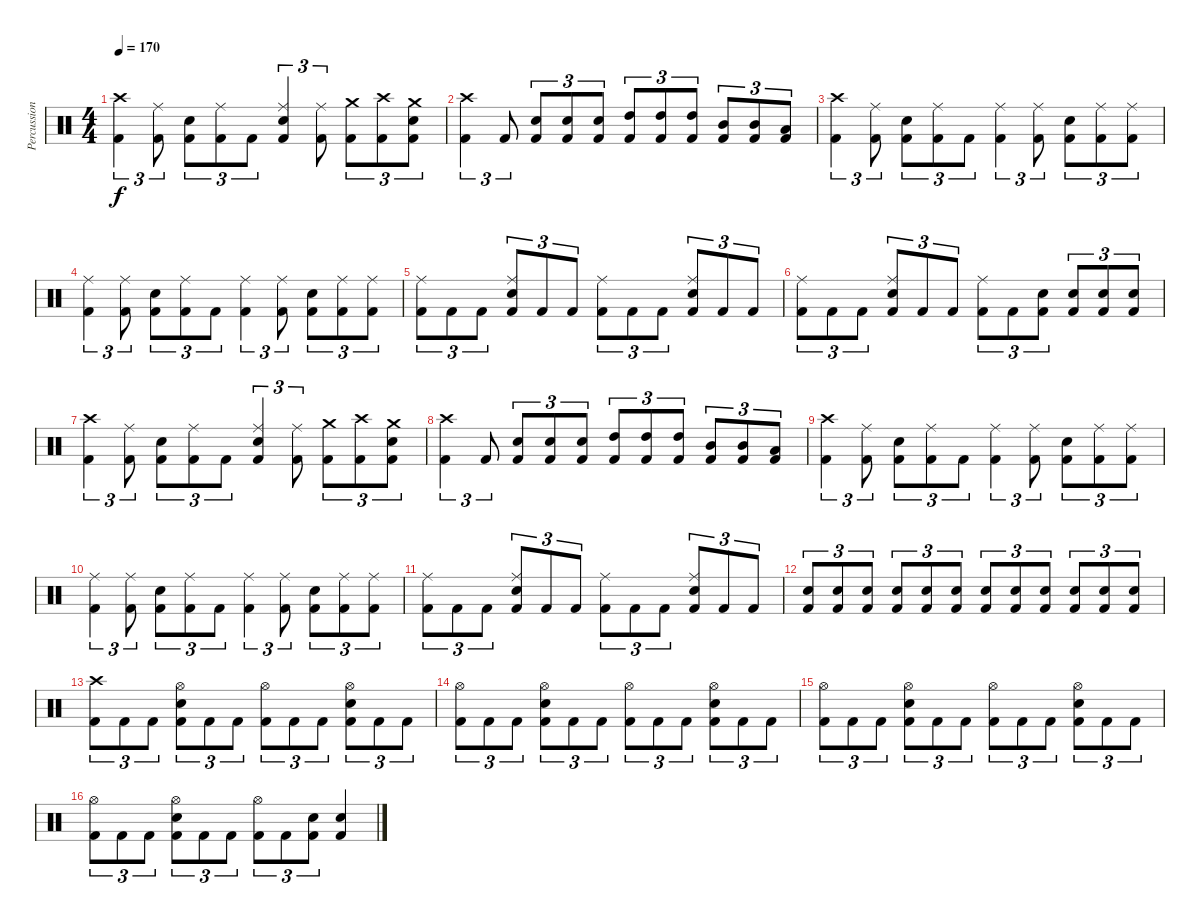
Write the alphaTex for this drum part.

\track ("Percussion" "Percussion") {instrument percussion}
\staff {score}
\articulation defaults
\ts (4 4)
\tempo 170
\clef neutral
\ks c
("Crash high (hit)" "Kick (hit) 2").4{tu (3 2) dy f} ("Ride (middle)" "Kick (hit) 2").8{tu (3 2)} ("Snare (hit) 2" "Kick (hit) 2").8{tu (3 2)} ("Ride (middle)" "Kick (hit) 2").8{tu (3 2)} "Kick (hit) 2".8{tu (3 2)} ("Ride (middle)" "Snare (hit) 2" "Kick (hit) 2").4{tu (3 2)} ("Ride (middle)" "Kick (hit) 2").8{tu (3 2)} ("Crash medium (hit)" "Kick (hit) 2").8{tu (3 2)} ("Crash high (hit)" "Kick (hit) 2").8{tu (3 2)} ("Crash medium (hit)" "Snare (hit) 2" "Kick (hit) 2").8{tu (3 2)} |
("Crash high (hit)" "Kick (hit) 2").4{tu (3 2)} "Kick (hit) 2".8{tu (3 2)} ("Snare (hit) 2" "Kick (hit) 2").8{tu (3 2)} ("Snare (hit) 2" "Kick (hit) 2").8{tu (3 2)} ("Snare (hit) 2" "Kick (hit) 2").8{tu (3 2)} ("High Tom (hit)" "Kick (hit) 2").8{tu (3 2)} ("High Tom (hit)" "Kick (hit) 2").8{tu (3 2)} ("High Tom (hit)" "Kick (hit) 2").8{tu (3 2)} ("Mid Tom (hit)" "Kick (hit) 2").8{tu (3 2)} ("Mid Tom (hit)" "Kick (hit) 2").8{tu (3 2)} ("Low Tom (hit)" "Kick (hit) 2").8{tu (3 2)} |
("Crash high (hit)" "Kick (hit) 2").4{tu (3 2)} ("Ride (middle)" "Kick (hit) 2").8{tu (3 2)} ("Snare (hit) 2" "Kick (hit) 2").8{tu (3 2)} ("Ride (middle)" "Kick (hit) 2").8{tu (3 2)} "Kick (hit) 2".8{tu (3 2)} ("Ride (middle)" "Kick (hit) 2").4{tu (3 2)} ("Ride (middle)" "Kick (hit) 2").8{tu (3 2)} ("Snare (hit) 2" "Kick (hit) 2").8{tu (3 2)} ("Ride (middle)" "Kick (hit) 2").8{tu (3 2)} ("Ride (middle)" "Kick (hit) 2").8{tu (3 2)} |
("Ride (middle)" "Kick (hit) 2").4{tu (3 2)} ("Ride (middle)" "Kick (hit) 2").8{tu (3 2)} ("Snare (hit) 2" "Kick (hit) 2").8{tu (3 2)} ("Ride (middle)" "Kick (hit) 2").8{tu (3 2)} "Kick (hit) 2".8{tu (3 2)} ("Ride (middle)" "Kick (hit) 2").4{tu (3 2)} ("Ride (middle)" "Kick (hit) 2").8{tu (3 2)} ("Snare (hit) 2" "Kick (hit) 2").8{tu (3 2)} ("Ride (middle)" "Kick (hit) 2").8{tu (3 2)} ("Ride (middle)" "Kick (hit) 2").8{tu (3 2)} |
("Ride (middle)" "Kick (hit) 2").8{tu (3 2)} "Kick (hit) 2".8{tu (3 2)} "Kick (hit) 2".8{tu (3 2)} ("Ride (middle)" "Snare (hit) 2" "Kick (hit) 2").8{tu (3 2)} "Kick (hit) 2".8{tu (3 2)} "Kick (hit) 2".8{tu (3 2)} ("Ride (middle)" "Kick (hit) 2").8{tu (3 2)} "Kick (hit) 2".8{tu (3 2)} "Kick (hit) 2".8{tu (3 2)} ("Ride (middle)" "Snare (hit) 2" "Kick (hit) 2").8{tu (3 2)} "Kick (hit) 2".8{tu (3 2)} "Kick (hit) 2".8{tu (3 2)} |
("Ride (middle)" "Kick (hit) 2").8{tu (3 2)} "Kick (hit) 2".8{tu (3 2)} "Kick (hit) 2".8{tu (3 2)} ("Ride (middle)" "Snare (hit) 2" "Kick (hit) 2").8{tu (3 2)} "Kick (hit) 2".8{tu (3 2)} "Kick (hit) 2".8{tu (3 2)} ("Ride (middle)" "Kick (hit) 2").8{tu (3 2)} "Kick (hit) 2".8{tu (3 2)} ("Snare (hit) 2" "Kick (hit) 2").8{tu (3 2)} ("Snare (hit) 2" "Kick (hit) 2").8{tu (3 2)} ("Snare (hit) 2" "Kick (hit) 2").8{tu (3 2)} ("Snare (hit) 2" "Kick (hit) 2").8{tu (3 2)} |
("Crash high (hit)" "Kick (hit) 2").4{tu (3 2)} ("Ride (middle)" "Kick (hit) 2").8{tu (3 2)} ("Snare (hit) 2" "Kick (hit) 2").8{tu (3 2)} ("Ride (middle)" "Kick (hit) 2").8{tu (3 2)} "Kick (hit) 2".8{tu (3 2)} ("Ride (middle)" "Snare (hit) 2" "Kick (hit) 2").4{tu (3 2)} ("Ride (middle)" "Kick (hit) 2").8{tu (3 2)} ("Crash medium (hit)" "Kick (hit) 2").8{tu (3 2)} ("Crash high (hit)" "Kick (hit) 2").8{tu (3 2)} ("Crash medium (hit)" "Snare (hit) 2" "Kick (hit) 2").8{tu (3 2)} |
("Crash high (hit)" "Kick (hit) 2").4{tu (3 2)} "Kick (hit) 2".8{tu (3 2)} ("Snare (hit) 2" "Kick (hit) 2").8{tu (3 2)} ("Snare (hit) 2" "Kick (hit) 2").8{tu (3 2)} ("Snare (hit) 2" "Kick (hit) 2").8{tu (3 2)} ("High Tom (hit)" "Kick (hit) 2").8{tu (3 2)} ("High Tom (hit)" "Kick (hit) 2").8{tu (3 2)} ("High Tom (hit)" "Kick (hit) 2").8{tu (3 2)} ("Mid Tom (hit)" "Kick (hit) 2").8{tu (3 2)} ("Mid Tom (hit)" "Kick (hit) 2").8{tu (3 2)} ("Low Tom (hit)" "Kick (hit) 2").8{tu (3 2)} |
("Crash high (hit)" "Kick (hit) 2").4{tu (3 2)} ("Ride (middle)" "Kick (hit) 2").8{tu (3 2)} ("Snare (hit) 2" "Kick (hit) 2").8{tu (3 2)} ("Ride (middle)" "Kick (hit) 2").8{tu (3 2)} "Kick (hit) 2".8{tu (3 2)} ("Ride (middle)" "Kick (hit) 2").4{tu (3 2)} ("Ride (middle)" "Kick (hit) 2").8{tu (3 2)} ("Snare (hit) 2" "Kick (hit) 2").8{tu (3 2)} ("Ride (middle)" "Kick (hit) 2").8{tu (3 2)} ("Ride (middle)" "Kick (hit) 2").8{tu (3 2)} |
("Ride (middle)" "Kick (hit) 2").4{tu (3 2)} ("Ride (middle)" "Kick (hit) 2").8{tu (3 2)} ("Snare (hit) 2" "Kick (hit) 2").8{tu (3 2)} ("Ride (middle)" "Kick (hit) 2").8{tu (3 2)} "Kick (hit) 2".8{tu (3 2)} ("Ride (middle)" "Kick (hit) 2").4{tu (3 2)} ("Ride (middle)" "Kick (hit) 2").8{tu (3 2)} ("Snare (hit) 2" "Kick (hit) 2").8{tu (3 2)} ("Ride (middle)" "Kick (hit) 2").8{tu (3 2)} ("Ride (middle)" "Kick (hit) 2").8{tu (3 2)} |
("Ride (middle)" "Kick (hit) 2").8{tu (3 2)} "Kick (hit) 2".8{tu (3 2)} "Kick (hit) 2".8{tu (3 2)} ("Ride (middle)" "Snare (hit) 2" "Kick (hit) 2").8{tu (3 2)} "Kick (hit) 2".8{tu (3 2)} "Kick (hit) 2".8{tu (3 2)} ("Ride (middle)" "Kick (hit) 2").8{tu (3 2)} "Kick (hit) 2".8{tu (3 2)} "Kick (hit) 2".8{tu (3 2)} ("Ride (middle)" "Snare (hit) 2" "Kick (hit) 2").8{tu (3 2)} "Kick (hit) 2".8{tu (3 2)} "Kick (hit) 2".8{tu (3 2)} |
("Snare (hit) 2" "Kick (hit) 2").8{tu (3 2)} ("Snare (hit) 2" "Kick (hit) 2").8{tu (3 2)} ("Snare (hit) 2" "Kick (hit) 2").8{tu (3 2)} ("Snare (hit) 2" "Kick (hit) 2").8{tu (3 2)} ("Snare (hit) 2" "Kick (hit) 2").8{tu (3 2)} ("Snare (hit) 2" "Kick (hit) 2").8{tu (3 2)} ("Snare (hit) 2" "Kick (hit) 2").8{tu (3 2)} ("Snare (hit) 2" "Kick (hit) 2").8{tu (3 2)} ("Snare (hit) 2" "Kick (hit) 2").8{tu (3 2)} ("Snare (hit) 2" "Kick (hit) 2").8{tu (3 2)} ("Snare (hit) 2" "Kick (hit) 2").8{tu (3 2)} ("Snare (hit) 2" "Kick (hit) 2").8{tu (3 2)} |
("Crash high (hit)" "Kick (hit) 2").8{tu (3 2)} "Kick (hit) 2".8{tu (3 2)} "Kick (hit) 2".8{tu (3 2)} ("Hi-Hat (open)" "Snare (hit) 2" "Kick (hit) 2").8{tu (3 2)} "Kick (hit) 2".8{tu (3 2)} "Kick (hit) 2".8{tu (3 2)} ("Hi-Hat (open)" "Kick (hit) 2").8{tu (3 2)} "Kick (hit) 2".8{tu (3 2)} "Kick (hit) 2".8{tu (3 2)} ("Hi-Hat (open)" "Snare (hit) 2" "Kick (hit) 2").8{tu (3 2)} "Kick (hit) 2".8{tu (3 2)} "Kick (hit) 2".8{tu (3 2)} |
("Hi-Hat (open)" "Kick (hit) 2").8{tu (3 2)} "Kick (hit) 2".8{tu (3 2)} "Kick (hit) 2".8{tu (3 2)} ("Hi-Hat (open)" "Snare (hit) 2" "Kick (hit) 2").8{tu (3 2)} "Kick (hit) 2".8{tu (3 2)} "Kick (hit) 2".8{tu (3 2)} ("Hi-Hat (open)" "Kick (hit) 2").8{tu (3 2)} "Kick (hit) 2".8{tu (3 2)} "Kick (hit) 2".8{tu (3 2)} ("Hi-Hat (open)" "Snare (hit) 2" "Kick (hit) 2").8{tu (3 2)} "Kick (hit) 2".8{tu (3 2)} "Kick (hit) 2".8{tu (3 2)} |
("Hi-Hat (open)" "Kick (hit) 2").8{tu (3 2)} "Kick (hit) 2".8{tu (3 2)} "Kick (hit) 2".8{tu (3 2)} ("Hi-Hat (open)" "Snare (hit) 2" "Kick (hit) 2").8{tu (3 2)} "Kick (hit) 2".8{tu (3 2)} "Kick (hit) 2".8{tu (3 2)} ("Hi-Hat (open)" "Kick (hit) 2").8{tu (3 2)} "Kick (hit) 2".8{tu (3 2)} "Kick (hit) 2".8{tu (3 2)} ("Hi-Hat (open)" "Snare (hit) 2" "Kick (hit) 2").8{tu (3 2)} "Kick (hit) 2".8{tu (3 2)} "Kick (hit) 2".8{tu (3 2)} |
("Hi-Hat (open)" "Kick (hit) 2").8{tu (3 2)} "Kick (hit) 2".8{tu (3 2)} "Kick (hit) 2".8{tu (3 2)} ("Hi-Hat (open)" "Snare (hit) 2" "Kick (hit) 2").8{tu (3 2)} "Kick (hit) 2".8{tu (3 2)} "Kick (hit) 2".8{tu (3 2)} ("Hi-Hat (open)" "Kick (hit) 2").8{tu (3 2)} "Kick (hit) 2".8{tu (3 2)} ("Snare (hit) 2" "Kick (hit) 2").8{tu (3 2)} ("Snare (hit) 2" "Kick (hit) 2").4
